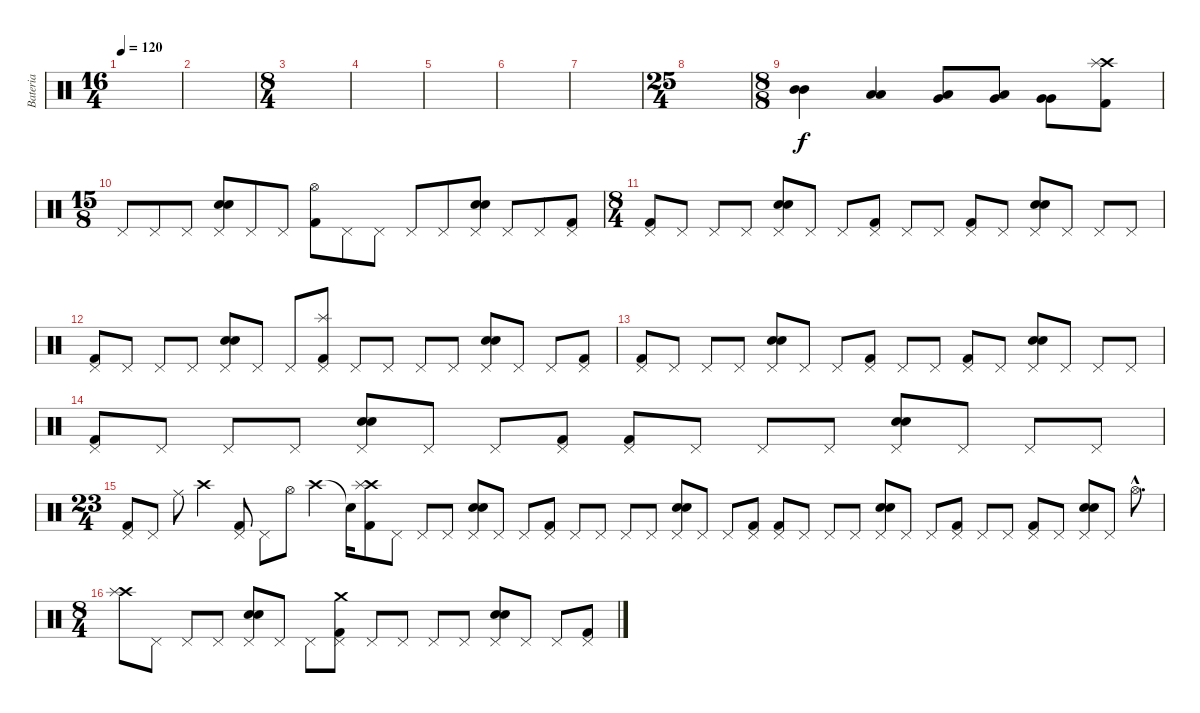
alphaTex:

\track ("Bateria" "Bateria") {instrument percussion}
\staff {score}
\articulation defaults
\ts (16 4)
\tempo 120
\clef neutral
\ks c
|
|
\ts (8 4)
|
|
|
|
|
\ts (25 4)
|
\ts (8 8)
("Mid Tom (hit)" "Mid Tom (hit)").4{bd 240} ("Low Tom (hit)" "Low Tom (hit)").4{bd 240} ("Very Low Tom (hit)" "Low Tom (hit)").8{bd 240} ("Very Low Tom (hit)" "Low Tom (hit)").8{bd 240} ("Very Low Tom (hit)" "Very Low Tom (hit)").8{bd 240} ("Crash high (hit)" "Kick (hit) 2" "Splash (hit)").8 |
\ts (15 8)
"Pedal Hi-Hat (hit)".8 "Pedal Hi-Hat (hit)".8 "Pedal Hi-Hat (hit)".8 ("Pedal Hi-Hat (hit)" "Electric Snare (hit)" "Snare (hit) 2").8 "Pedal Hi-Hat (hit)".8 "Pedal Hi-Hat (hit)".8 ("Hi-Hat (open)" "Kick (hit) 2").8 "Pedal Hi-Hat (hit)".8 "Pedal Hi-Hat (hit)".8 "Pedal Hi-Hat (hit)".8 "Pedal Hi-Hat (hit)".8 ("Pedal Hi-Hat (hit)" "Electric Snare (hit)" "Snare (hit) 2").8 "Pedal Hi-Hat (hit)".8 "Pedal Hi-Hat (hit)".8 ("Pedal Hi-Hat (hit)" "Kick (hit) 2").8 |
\ts (8 4)
("Pedal Hi-Hat (hit)" "Kick (hit) 2").8 "Pedal Hi-Hat (hit)".8 "Pedal Hi-Hat (hit)".8 "Pedal Hi-Hat (hit)".8 ("Pedal Hi-Hat (hit)" "Electric Snare (hit)" "Snare (hit) 2").8 "Pedal Hi-Hat (hit)".8 "Pedal Hi-Hat (hit)".8 ("Pedal Hi-Hat (hit)" "Kick (hit) 2").8 "Pedal Hi-Hat (hit)".8 "Pedal Hi-Hat (hit)".8 ("Pedal Hi-Hat (hit)" "Kick (hit) 2").8 "Pedal Hi-Hat (hit)".8 ("Pedal Hi-Hat (hit)" "Electric Snare (hit)" "Snare (hit) 2").8 "Pedal Hi-Hat (hit)".8 "Pedal Hi-Hat (hit)".8 "Pedal Hi-Hat (hit)".8 |
("Pedal Hi-Hat (hit)" "Kick (hit) 2").8 "Pedal Hi-Hat (hit)".8 "Pedal Hi-Hat (hit)".8 "Pedal Hi-Hat (hit)".8 ("Pedal Hi-Hat (hit)" "Electric Snare (hit)" "Snare (hit) 2").8 "Pedal Hi-Hat (hit)".8 "Pedal Hi-Hat (hit)".8 ("Pedal Hi-Hat (hit)" "Kick (hit) 2" "Splash (hit)").8 "Pedal Hi-Hat (hit)".8 "Pedal Hi-Hat (hit)".8 "Pedal Hi-Hat (hit)".8 "Pedal Hi-Hat (hit)".8 ("Pedal Hi-Hat (hit)" "Electric Snare (hit)" "Snare (hit) 2").8 "Pedal Hi-Hat (hit)".8 "Pedal Hi-Hat (hit)".8 ("Pedal Hi-Hat (hit)" "Kick (hit) 2").8 |
("Pedal Hi-Hat (hit)" "Kick (hit) 2").8 "Pedal Hi-Hat (hit)".8 "Pedal Hi-Hat (hit)".8 "Pedal Hi-Hat (hit)".8 ("Pedal Hi-Hat (hit)" "Electric Snare (hit)" "Snare (hit) 2").8 "Pedal Hi-Hat (hit)".8 "Pedal Hi-Hat (hit)".8 ("Pedal Hi-Hat (hit)" "Kick (hit) 2").8 "Pedal Hi-Hat (hit)".8 "Pedal Hi-Hat (hit)".8 ("Pedal Hi-Hat (hit)" "Kick (hit) 2").8 "Pedal Hi-Hat (hit)".8 ("Pedal Hi-Hat (hit)" "Electric Snare (hit)" "Snare (hit) 2").8 "Pedal Hi-Hat (hit)".8 "Pedal Hi-Hat (hit)".8 "Pedal Hi-Hat (hit)".8 |
("Pedal Hi-Hat (hit)" "Kick (hit) 2").8 "Pedal Hi-Hat (hit)".8 "Pedal Hi-Hat (hit)".8 "Pedal Hi-Hat (hit)".8 ("Pedal Hi-Hat (hit)" "Electric Snare (hit)" "Snare (hit) 2").8 "Pedal Hi-Hat (hit)".8 "Pedal Hi-Hat (hit)".8 ("Pedal Hi-Hat (hit)" "Kick (hit) 2").8 ("Pedal Hi-Hat (hit)" "Kick (hit) 2").8 "Pedal Hi-Hat (hit)".8 "Pedal Hi-Hat (hit)".8 "Pedal Hi-Hat (hit)".8 ("Pedal Hi-Hat (hit)" "Electric Snare (hit)" "Snare (hit) 2").8 "Pedal Hi-Hat (hit)".8 "Pedal Hi-Hat (hit)".8 "Pedal Hi-Hat (hit)".8 |
\ts (23 4)
("Pedal Hi-Hat (hit)" "Kick (hit) 2").8 "Pedal Hi-Hat (hit)".8 "Ride (middle)".8 "Crash high (hit)".2 ("Pedal Hi-Hat (hit)" "Kick (hit) 2").8 "Pedal Hi-Hat (hit)".8 "Hi-Hat (open)".8 "Crash high (hit)".2 "Snare (hit)"{t}.16 ("Crash high (hit)" "Kick (hit) 2" "Splash (hit)").8 "Pedal Hi-Hat (hit)".8 "Pedal Hi-Hat (hit)".8 "Pedal Hi-Hat (hit)".8 ("Pedal Hi-Hat (hit)" "Electric Snare (hit)" "Snare (hit) 2").8 "Pedal Hi-Hat (hit)".8 "Pedal Hi-Hat (hit)".8 ("Pedal Hi-Hat (hit)" "Kick (hit) 2").8 "Pedal Hi-Hat (hit)".8 "Pedal Hi-Hat (hit)".8 "Pedal Hi-Hat (hit)".8 "Pedal Hi-Hat (hit)".8 ("Pedal Hi-Hat (hit)" "Electric Snare (hit)" "Snare (hit) 2").8 "Pedal Hi-Hat (hit)".8 "Pedal Hi-Hat (hit)".8 ("Pedal Hi-Hat (hit)" "Kick (hit) 2").8 ("Pedal Hi-Hat (hit)" "Kick (hit) 2").8 "Pedal Hi-Hat (hit)".8 "Pedal Hi-Hat (hit)".8 "Pedal Hi-Hat (hit)".8 ("Pedal Hi-Hat (hit)" "Electric Snare (hit)" "Snare (hit) 2").8 "Pedal Hi-Hat (hit)".8 "Pedal Hi-Hat (hit)".8 ("Pedal Hi-Hat (hit)" "Kick (hit) 2").8 "Pedal Hi-Hat (hit)".8 "Pedal Hi-Hat (hit)".8 ("Pedal Hi-Hat (hit)" "Kick (hit) 2").8 "Pedal Hi-Hat (hit)".8 ("Pedal Hi-Hat (hit)" "Electric Snare (hit)" "Snare (hit) 2").8 "Pedal Hi-Hat (hit)".8 "Hi-Hat (open)"{hac}.8{d} |
\ts (8 4)
("Crash high (hit)" "Splash (hit)").8 "Pedal Hi-Hat (hit)".8 "Pedal Hi-Hat (hit)".8 "Pedal Hi-Hat (hit)".8 ("Pedal Hi-Hat (hit)" "Electric Snare (hit)" "Snare (hit) 2").8 "Pedal Hi-Hat (hit)".8 "Pedal Hi-Hat (hit)".8 ("Pedal Hi-Hat (hit)" "Crash medium (hit)" "Kick (hit) 2").8 "Pedal Hi-Hat (hit)".8 "Pedal Hi-Hat (hit)".8 "Pedal Hi-Hat (hit)".8 "Pedal Hi-Hat (hit)".8 ("Pedal Hi-Hat (hit)" "Electric Snare (hit)" "Snare (hit) 2").8 "Pedal Hi-Hat (hit)".8 "Pedal Hi-Hat (hit)".8 ("Pedal Hi-Hat (hit)" "Kick (hit) 2").8
